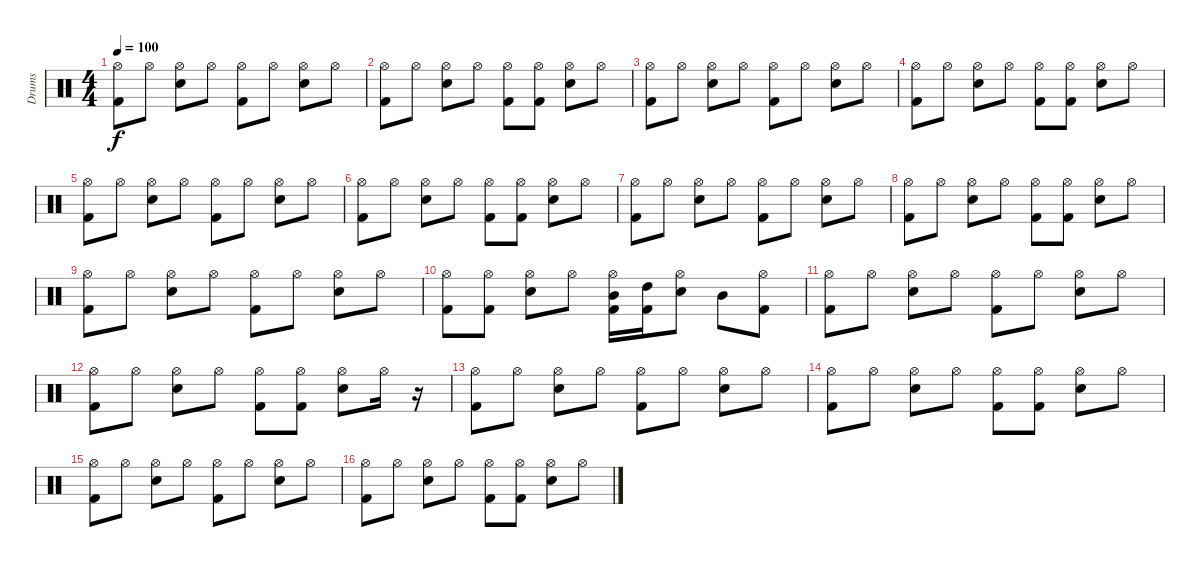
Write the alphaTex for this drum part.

\track ("Drums" "Drums") {instrument percussion}
\staff {score}
\articulation defaults
\ts (4 4)
\tempo 100
\clef neutral
\ks c
("Hi-Hat (open)" "Kick (hit) 2").8{dy f} "Hi-Hat (open)".8 ("Hi-Hat (open)" "Electric Snare (hit)").8 "Hi-Hat (open)".8 ("Hi-Hat (open)" "Kick (hit) 2").8 "Hi-Hat (open)".8 ("Hi-Hat (open)" "Electric Snare (hit)").8 "Hi-Hat (open)".8 |
("Hi-Hat (open)" "Kick (hit) 2").8 "Hi-Hat (open)".8 ("Hi-Hat (open)" "Electric Snare (hit)").8 "Hi-Hat (open)".8 ("Hi-Hat (open)" "Kick (hit) 2").8 ("Hi-Hat (open)" "Kick (hit) 2").8 ("Hi-Hat (open)" "Electric Snare (hit)").8 "Hi-Hat (open)".8 |
("Hi-Hat (open)" "Kick (hit) 2").8 "Hi-Hat (open)".8 ("Hi-Hat (open)" "Electric Snare (hit)").8 "Hi-Hat (open)".8 ("Hi-Hat (open)" "Kick (hit) 2").8 "Hi-Hat (open)".8 ("Hi-Hat (open)" "Electric Snare (hit)").8 "Hi-Hat (open)".8 |
("Hi-Hat (open)" "Kick (hit) 2").8 "Hi-Hat (open)".8 ("Hi-Hat (open)" "Electric Snare (hit)").8 "Hi-Hat (open)".8 ("Hi-Hat (open)" "Kick (hit) 2").8 ("Hi-Hat (open)" "Kick (hit) 2").8 ("Hi-Hat (open)" "Electric Snare (hit)").8 "Hi-Hat (open)".8 |
("Hi-Hat (open)" "Kick (hit) 2").8 "Hi-Hat (open)".8 ("Hi-Hat (open)" "Electric Snare (hit)").8 "Hi-Hat (open)".8 ("Hi-Hat (open)" "Kick (hit) 2").8 "Hi-Hat (open)".8 ("Hi-Hat (open)" "Electric Snare (hit)").8 "Hi-Hat (open)".8 |
("Hi-Hat (open)" "Kick (hit) 2").8 "Hi-Hat (open)".8 ("Hi-Hat (open)" "Electric Snare (hit)").8 "Hi-Hat (open)".8 ("Hi-Hat (open)" "Kick (hit) 2").8 ("Hi-Hat (open)" "Kick (hit) 2").8 ("Hi-Hat (open)" "Electric Snare (hit)").8 "Hi-Hat (open)".8 |
("Hi-Hat (open)" "Kick (hit) 2").8 "Hi-Hat (open)".8 ("Hi-Hat (open)" "Electric Snare (hit)").8 "Hi-Hat (open)".8 ("Hi-Hat (open)" "Kick (hit) 2").8 "Hi-Hat (open)".8 ("Hi-Hat (open)" "Electric Snare (hit)").8 "Hi-Hat (open)".8 |
("Hi-Hat (open)" "Kick (hit) 2").8 "Hi-Hat (open)".8 ("Hi-Hat (open)" "Electric Snare (hit)").8 "Hi-Hat (open)".8 ("Hi-Hat (open)" "Kick (hit) 2").8 ("Hi-Hat (open)" "Kick (hit) 2").8 ("Hi-Hat (open)" "Electric Snare (hit)").8 "Hi-Hat (open)".8 |
("Hi-Hat (open)" "Kick (hit) 2").8 "Hi-Hat (open)".8 ("Hi-Hat (open)" "Electric Snare (hit)").8 "Hi-Hat (open)".8 ("Hi-Hat (open)" "Kick (hit) 2").8 "Hi-Hat (open)".8 ("Hi-Hat (open)" "Electric Snare (hit)").8 "Hi-Hat (open)".8 |
("Hi-Hat (open)" "Kick (hit) 2").8 ("Hi-Hat (open)" "Kick (hit) 2").8 ("Hi-Hat (open)" "Electric Snare (hit)").8 "Hi-Hat (open)".8 ("Hi-Hat (open)" "Mid Tom (hit)" "Kick (hit) 2").16 ("High Tom (hit)" "Kick (hit) 2").16 ("Hi-Hat (open)" "Electric Snare (hit)").8 "Mid Tom (hit)".8 ("Hi-Hat (open)" "Kick (hit) 2").8 |
("Hi-Hat (open)" "Kick (hit) 2").8 "Hi-Hat (open)".8 ("Hi-Hat (open)" "Electric Snare (hit)").8 "Hi-Hat (open)".8 ("Hi-Hat (open)" "Kick (hit) 2").8 "Hi-Hat (open)".8 ("Hi-Hat (open)" "Electric Snare (hit)").8 "Hi-Hat (open)".8 |
("Hi-Hat (open)" "Kick (hit) 2").8 "Hi-Hat (open)".8 ("Hi-Hat (open)" "Electric Snare (hit)").8 "Hi-Hat (open)".8 ("Hi-Hat (open)" "Kick (hit) 2").8 ("Hi-Hat (open)" "Kick (hit) 2").8 ("Hi-Hat (open)" "Electric Snare (hit)").8 "Hi-Hat (open)".16 r.16 |
("Hi-Hat (open)" "Kick (hit) 2").8 "Hi-Hat (open)".8 ("Hi-Hat (open)" "Electric Snare (hit)").8 "Hi-Hat (open)".8 ("Hi-Hat (open)" "Kick (hit) 2").8 "Hi-Hat (open)".8 ("Hi-Hat (open)" "Electric Snare (hit)").8 "Hi-Hat (open)".8 |
("Hi-Hat (open)" "Kick (hit) 2").8 "Hi-Hat (open)".8 ("Hi-Hat (open)" "Electric Snare (hit)").8 "Hi-Hat (open)".8 ("Hi-Hat (open)" "Kick (hit) 2").8 ("Hi-Hat (open)" "Kick (hit) 2").8 ("Hi-Hat (open)" "Electric Snare (hit)").8 "Hi-Hat (open)".8 |
("Hi-Hat (open)" "Kick (hit) 2").8 "Hi-Hat (open)".8 ("Hi-Hat (open)" "Electric Snare (hit)").8 "Hi-Hat (open)".8 ("Hi-Hat (open)" "Kick (hit) 2").8 "Hi-Hat (open)".8 ("Hi-Hat (open)" "Electric Snare (hit)").8 "Hi-Hat (open)".8 |
("Hi-Hat (open)" "Kick (hit) 2").8 "Hi-Hat (open)".8 ("Hi-Hat (open)" "Electric Snare (hit)").8 "Hi-Hat (open)".8 ("Hi-Hat (open)" "Kick (hit) 2").8 ("Hi-Hat (open)" "Kick (hit) 2").8 ("Hi-Hat (open)" "Electric Snare (hit)").8 "Hi-Hat (open)".8
